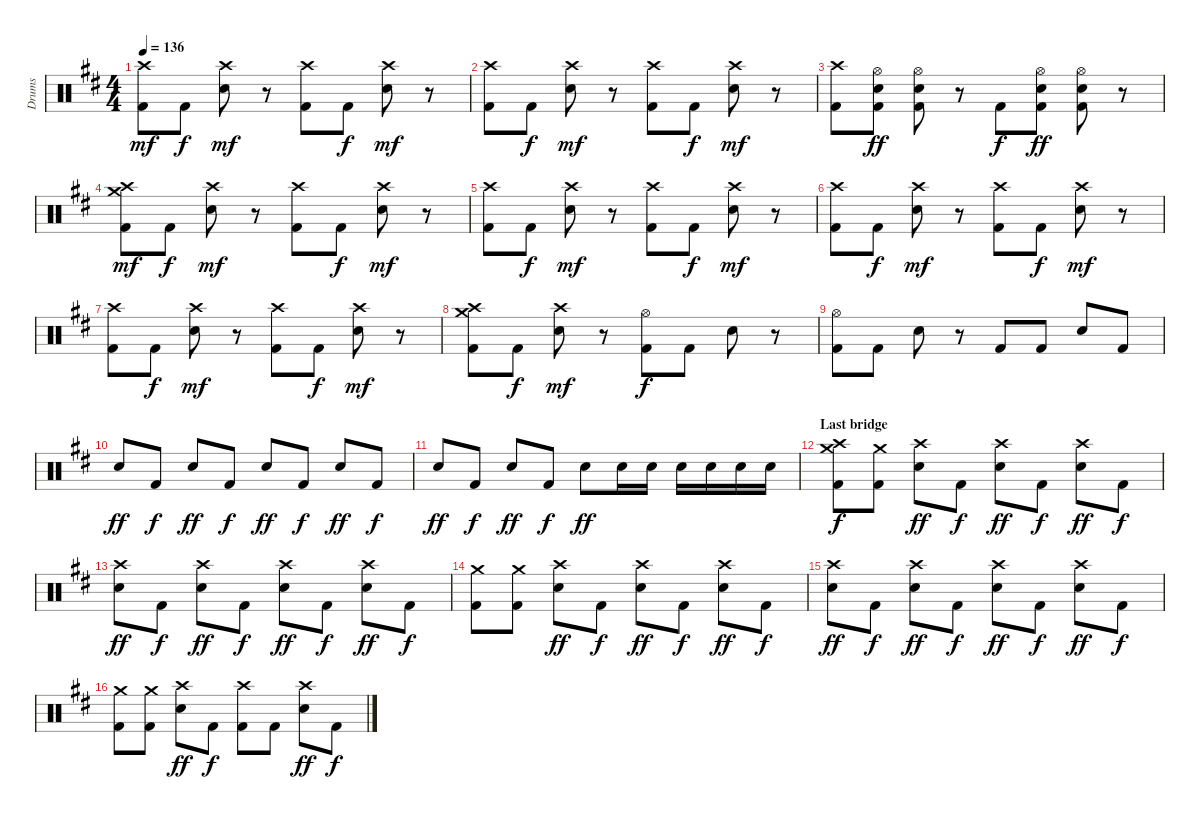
\track ("Drums" "Drums") {instrument percussion}
\staff {score}
\articulation defaults
\ts (4 4)
\tempo 136
\clef neutral
\ks d
("Crash high (hit)" "Kick (hit) 2").8{dy mf} "Kick (hit) 2".8{dy f} ("Crash high (hit)" "Electric Snare (hit)").8{dy mf} r.8 ("Crash high (hit)" "Kick (hit) 2").8 "Kick (hit) 2".8{dy f} ("Crash high (hit)" "Electric Snare (hit)").8{dy mf} r.8 |
("Crash high (hit)" "Kick (hit) 2").8 "Kick (hit) 2".8{dy f} ("Crash high (hit)" "Electric Snare (hit)").8{dy mf} r.8 ("Crash high (hit)" "Kick (hit) 2").8 "Kick (hit) 2".8{dy f} ("Crash high (hit)" "Electric Snare (hit)").8{dy mf} r.8 |
("Crash high (hit)" "Kick (hit) 2").8 ("Hi-Hat (open)" "Electric Snare (hit)" "Kick (hit) 2").8{dy ff} ("Hi-Hat (open)" "Electric Snare (hit)" "Kick (hit) 2").8 r.8 "Kick (hit) 2".8{dy f} ("Hi-Hat (open)" "Electric Snare (hit)" "Kick (hit) 2").8{dy ff} ("Hi-Hat (open)" "Electric Snare (hit)" "Kick (hit) 2").8 r.8 |
("Crash medium (hit)" "Crash high (hit)" "Kick (hit) 2").8{dy mf} "Kick (hit) 2".8{dy f} ("Crash high (hit)" "Electric Snare (hit)").8{dy mf} r.8 ("Crash high (hit)" "Kick (hit) 2").8 "Kick (hit) 2".8{dy f} ("Crash high (hit)" "Electric Snare (hit)").8{dy mf} r.8 |
("Crash high (hit)" "Kick (hit) 2").8 "Kick (hit) 2".8{dy f} ("Crash high (hit)" "Electric Snare (hit)").8{dy mf} r.8 ("Crash high (hit)" "Kick (hit) 2").8 "Kick (hit) 2".8{dy f} ("Crash high (hit)" "Electric Snare (hit)").8{dy mf} r.8 |
("Crash high (hit)" "Kick (hit) 2").8 "Kick (hit) 2".8{dy f} ("Crash high (hit)" "Electric Snare (hit)").8{dy mf} r.8 ("Crash high (hit)" "Kick (hit) 2").8 "Kick (hit) 2".8{dy f} ("Crash high (hit)" "Electric Snare (hit)").8{dy mf} r.8 |
("Crash high (hit)" "Kick (hit) 2").8 "Kick (hit) 2".8{dy f} ("Crash high (hit)" "Electric Snare (hit)").8{dy mf} r.8 ("Crash high (hit)" "Kick (hit) 2").8 "Kick (hit) 2".8{dy f} ("Crash high (hit)" "Electric Snare (hit)").8{dy mf} r.8 |
("Crash medium (hit)" "Crash high (hit)" "Kick (hit) 2").8 "Kick (hit) 2".8{dy f} ("Crash high (hit)" "Electric Snare (hit)").8{dy mf} r.8 ("Hi-Hat (open)" "Kick (hit) 2").8{dy f} "Kick (hit) 2".8 "Electric Snare (hit)".8 r.8 |
("Hi-Hat (open)" "Kick (hit) 2").8 "Kick (hit) 2".8 "Electric Snare (hit)".8 r.8 "Kick (hit) 2".8 "Kick (hit) 2".8 "Electric Snare (hit)".8 "Kick (hit) 2".8 |
"Electric Snare (hit)".8{dy ff} "Kick (hit) 2".8{dy f} "Electric Snare (hit)".8{dy ff} "Kick (hit) 2".8{dy f} "Electric Snare (hit)".8{dy ff} "Kick (hit) 2".8{dy f} "Electric Snare (hit)".8{dy ff} "Kick (hit) 2".8{dy f} |
"Electric Snare (hit)".8{dy ff} "Kick (hit) 2".8{dy f} "Electric Snare (hit)".8{dy ff} "Kick (hit) 2".8{dy f} "Electric Snare (hit)".8{dy ff} "Electric Snare (hit)".16 "Electric Snare (hit)".16 "Electric Snare (hit)".16 "Electric Snare (hit)".16 "Electric Snare (hit)".16 "Electric Snare (hit)".16 |
\section ("" "Last bridge")
("Crash medium (hit)" "Crash high (hit)" "Kick (hit) 2").8{dy f} ("Crash medium (hit)" "Kick (hit) 2").8 ("Crash high (hit)" "Electric Snare (hit)").8{dy ff} "Kick (hit) 2".8{dy f} ("Crash high (hit)" "Electric Snare (hit)").8{dy ff} "Kick (hit) 2".8{dy f} ("Crash high (hit)" "Electric Snare (hit)").8{dy ff} "Kick (hit) 2".8{dy f} |
("Crash high (hit)" "Electric Snare (hit)").8{dy ff} "Kick (hit) 2".8{dy f} ("Crash high (hit)" "Electric Snare (hit)").8{dy ff} "Kick (hit) 2".8{dy f} ("Crash high (hit)" "Electric Snare (hit)").8{dy ff} "Kick (hit) 2".8{dy f} ("Crash high (hit)" "Electric Snare (hit)").8{dy ff} "Kick (hit) 2".8{dy f} |
("Crash medium (hit)" "Kick (hit) 2").8 ("Crash medium (hit)" "Kick (hit) 2").8 ("Crash high (hit)" "Electric Snare (hit)").8{dy ff} "Kick (hit) 2".8{dy f} ("Crash high (hit)" "Electric Snare (hit)").8{dy ff} "Kick (hit) 2".8{dy f} ("Crash high (hit)" "Electric Snare (hit)").8{dy ff} "Kick (hit) 2".8{dy f} |
("Crash high (hit)" "Electric Snare (hit)").8{dy ff} "Kick (hit) 2".8{dy f} ("Crash high (hit)" "Electric Snare (hit)").8{dy ff} "Kick (hit) 2".8{dy f} ("Crash high (hit)" "Electric Snare (hit)").8{dy ff} "Kick (hit) 2".8{dy f} ("Crash high (hit)" "Electric Snare (hit)").8{dy ff} "Kick (hit) 2".8{dy f} |
("Crash medium (hit)" "Kick (hit) 2").8 ("Crash medium (hit)" "Kick (hit) 2").8 ("Crash high (hit)" "Electric Snare (hit)").8{dy ff} "Kick (hit) 2".8{dy f} ("Crash high (hit)" "Kick (hit) 2").8 "Kick (hit) 2".8 ("Crash high (hit)" "Electric Snare (hit)").8{dy ff} "Kick (hit) 2".8{dy f}
